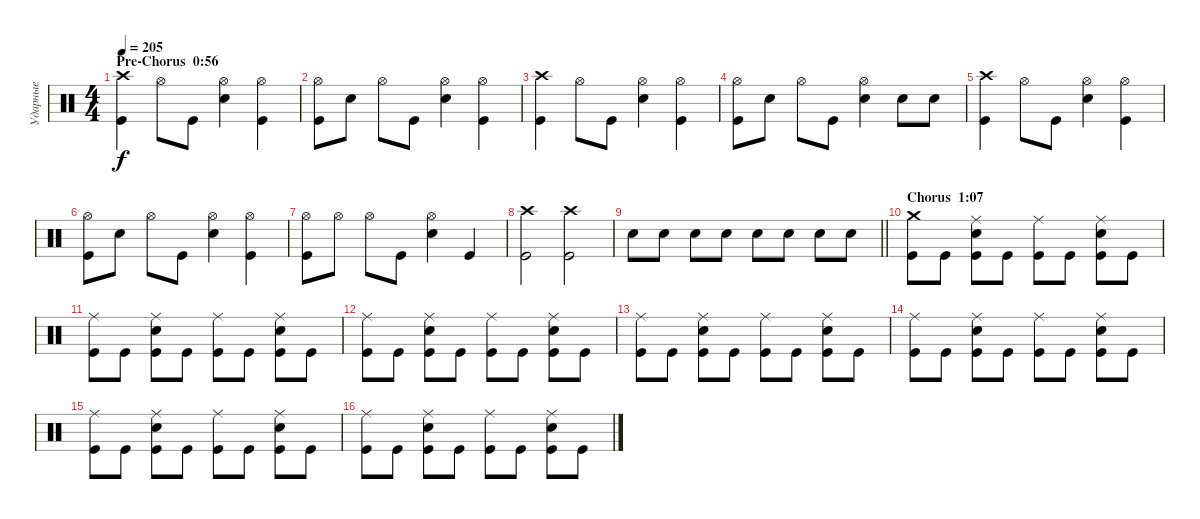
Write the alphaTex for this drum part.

\track ("Ударные" "Ударные") {instrument percussion}
\staff {score}
\articulation defaults
\ts (4 4)
\section ("" "Pre-Chorus  0:56")
\tempo 205
\clef neutral
\ks c
("Crash high (hit)" "Kick (hit)").4{dy f} "Hi-Hat (open)".8 "Kick (hit)".8 ("Hi-Hat (open)" "Snare (hit) 2").4 ("Hi-Hat (open)" "Kick (hit)").4 |
("Hi-Hat (open)" "Kick (hit)").8 "Snare (hit) 2".8 "Hi-Hat (open)".8 "Kick (hit)".8 ("Hi-Hat (open)" "Snare (hit) 2").4 ("Hi-Hat (open)" "Kick (hit)").4 |
("Crash high (hit)" "Kick (hit)").4 "Hi-Hat (open)".8 "Kick (hit)".8 ("Hi-Hat (open)" "Snare (hit) 2").4 ("Hi-Hat (open)" "Kick (hit)").4 |
("Hi-Hat (open)" "Kick (hit)").8 "Snare (hit) 2".8 "Hi-Hat (open)".8 "Kick (hit)".8 ("Hi-Hat (open)" "Snare (hit) 2").4 "Snare (hit) 2".8 "Snare (hit) 2".8 |
("Crash high (hit)" "Kick (hit)").4 "Hi-Hat (open)".8 "Kick (hit)".8 ("Hi-Hat (open)" "Snare (hit) 2").4 ("Hi-Hat (open)" "Kick (hit)").4 |
("Hi-Hat (open)" "Kick (hit)").8 "Snare (hit) 2".8 "Hi-Hat (open)".8 "Kick (hit)".8 ("Hi-Hat (open)" "Snare (hit) 2").4 ("Hi-Hat (open)" "Kick (hit)").4 |
("Hi-Hat (open)" "Kick (hit)").8 "Hi-Hat (open)".8 "Hi-Hat (open)".8 "Kick (hit)".8 ("Hi-Hat (open)" "Snare (hit) 2").4 "Kick (hit)".4 |
("Crash high (hit)" "Kick (hit)").2 ("Crash high (hit)" "Kick (hit)").2 |
\barLineRight lightlight "Snare (hit) 2".8 "Snare (hit) 2".8 "Snare (hit) 2".8 "Snare (hit) 2".8 "Snare (hit) 2".8 "Snare (hit) 2".8 "Snare (hit) 2".8 "Snare (hit) 2".8
|
\section ("" "Chorus  1:07")
("Crash medium (hit)" "Kick (hit)").8 "Kick (hit)".8 ("Ride (middle)" "Snare (hit) 2" "Kick (hit)").8 "Kick (hit)".8 ("Ride (middle)" "Kick (hit)").8 "Kick (hit)".8 ("Ride (middle)" "Snare (hit) 2" "Kick (hit)").8 "Kick (hit)".8 |
("Ride (middle)" "Kick (hit)").8 "Kick (hit)".8 ("Ride (middle)" "Snare (hit) 2" "Kick (hit)").8 "Kick (hit)".8 ("Ride (middle)" "Kick (hit)").8 "Kick (hit)".8 ("Ride (middle)" "Snare (hit) 2" "Kick (hit)").8 "Kick (hit)".8 |
("Ride (middle)" "Kick (hit)").8 "Kick (hit)".8 ("Ride (middle)" "Snare (hit) 2" "Kick (hit)").8 "Kick (hit)".8 ("Ride (middle)" "Kick (hit)").8 "Kick (hit)".8 ("Ride (middle)" "Snare (hit) 2" "Kick (hit)").8 "Kick (hit)".8 |
("Ride (middle)" "Kick (hit)").8 "Kick (hit)".8 ("Ride (middle)" "Snare (hit) 2" "Kick (hit)").8 "Kick (hit)".8 ("Ride (middle)" "Kick (hit)").8 "Kick (hit)".8 ("Ride (middle)" "Snare (hit) 2" "Kick (hit)").8 "Kick (hit)".8 |
("Ride (middle)" "Kick (hit)").8 "Kick (hit)".8 ("Ride (middle)" "Snare (hit) 2" "Kick (hit)").8 "Kick (hit)".8 ("Ride (middle)" "Kick (hit)").8 "Kick (hit)".8 ("Ride (middle)" "Snare (hit) 2" "Kick (hit)").8 "Kick (hit)".8 |
("Ride (middle)" "Kick (hit)").8 "Kick (hit)".8 ("Ride (middle)" "Snare (hit) 2" "Kick (hit)").8 "Kick (hit)".8 ("Ride (middle)" "Kick (hit)").8 "Kick (hit)".8 ("Ride (middle)" "Snare (hit) 2" "Kick (hit)").8 "Kick (hit)".8 |
("Ride (middle)" "Kick (hit)").8 "Kick (hit)".8 ("Ride (middle)" "Snare (hit) 2" "Kick (hit)").8 "Kick (hit)".8 ("Ride (middle)" "Kick (hit)").8 "Kick (hit)".8 ("Ride (middle)" "Snare (hit) 2" "Kick (hit)").8 "Kick (hit)".8
